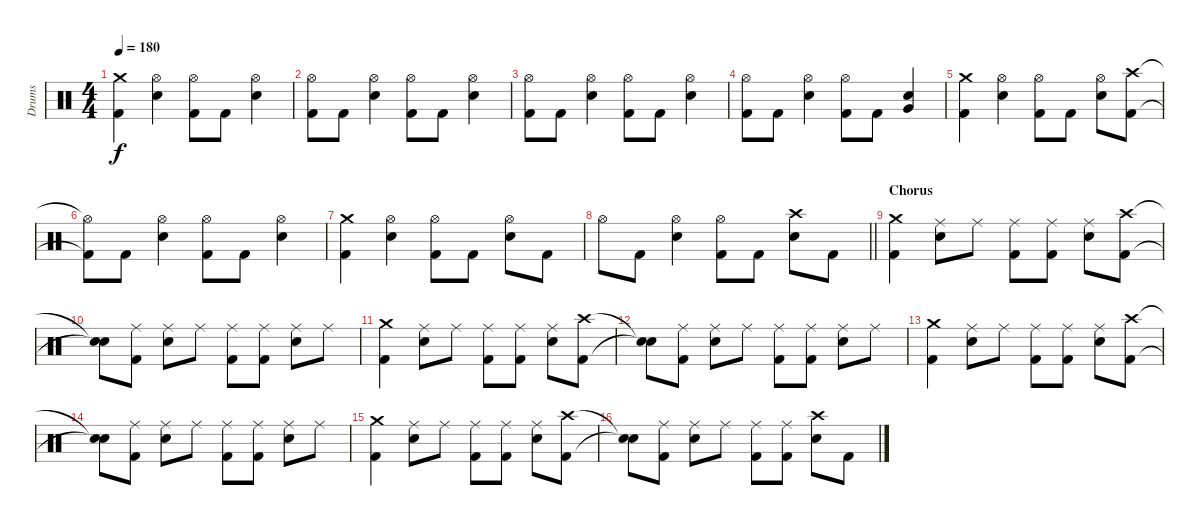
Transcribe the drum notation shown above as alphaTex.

\track ("Drums" "Drums") {instrument percussion}
\staff {score}
\articulation defaults
\ts (4 4)
\tempo 180
\clef neutral
\ks c
("Crash medium (hit)" "Kick (hit) 2").4{dy f} ("Hi-Hat (open)" "Electric Snare (hit)").4 ("Hi-Hat (open)" "Kick (hit) 2").8 "Kick (hit) 2".8 ("Hi-Hat (open)" "Electric Snare (hit)").4 |
("Hi-Hat (open)" "Kick (hit) 2").8 "Kick (hit) 2".8 ("Hi-Hat (open)" "Electric Snare (hit)").4 ("Hi-Hat (open)" "Kick (hit) 2").8 "Kick (hit) 2".8 ("Hi-Hat (open)" "Electric Snare (hit)").4 |
("Hi-Hat (open)" "Kick (hit) 2").8 "Kick (hit) 2".8 ("Hi-Hat (open)" "Electric Snare (hit)").4 ("Hi-Hat (open)" "Kick (hit) 2").8 "Kick (hit) 2".8 ("Hi-Hat (open)" "Electric Snare (hit)").4 |
("Hi-Hat (open)" "Kick (hit) 2").8 "Kick (hit) 2".8 ("Hi-Hat (open)" "Electric Snare (hit)").4 ("Hi-Hat (open)" "Kick (hit) 2").8 "Kick (hit) 2".8 ("Very Low Tom (hit)" "Electric Snare (hit)").4 |
("Crash medium (hit)" "Kick (hit) 2").4 ("Hi-Hat (open)" "Electric Snare (hit)").4 ("Hi-Hat (open)" "Kick (hit) 2").8 "Kick (hit) 2".8 ("Hi-Hat (open)" "Electric Snare (hit)").8 ("Crash high (hit)" "Kick (hit) 2").8 |
("Hi-Hat (open)"{t} "Kick (hit) 2"{t}).8 "Kick (hit) 2".8 ("Hi-Hat (open)" "Electric Snare (hit)").4 ("Hi-Hat (open)" "Kick (hit) 2").8 "Kick (hit) 2".8 ("Hi-Hat (open)" "Electric Snare (hit)").4 |
("Crash medium (hit)" "Kick (hit) 2").4 ("Hi-Hat (open)" "Electric Snare (hit)").4 ("Hi-Hat (open)" "Kick (hit) 2").8 "Kick (hit) 2".8 ("Hi-Hat (open)" "Electric Snare (hit)").8 "Kick (hit) 2".8 |
\barLineRight lightlight "Hi-Hat (open)".8 "Kick (hit) 2".8
("Hi-Hat (open)" "Electric Snare (hit)").4 ("Hi-Hat (open)" "Kick (hit) 2").8 "Kick (hit) 2".8 ("Crash high (hit)" "Electric Snare (hit)").8 "Kick (hit) 2".8 |
\section ("" "Chorus")
("Crash medium (hit)" "Kick (hit) 2").4 ("Ride (middle)" "Electric Snare (hit)").8 "Ride (middle)".8 ("Ride (middle)" "Kick (hit) 2").8 ("Ride (middle)" "Kick (hit) 2").8 ("Ride (middle)" "Electric Snare (hit)").8 ("Crash high (hit)" "Kick (hit) 2").8 |
("Snare (hit)"{t} "Snare (hit)"{t}).8 ("Ride (middle)" "Kick (hit) 2").8 ("Ride (middle)" "Electric Snare (hit)").8 "Ride (middle)".8 ("Ride (middle)" "Kick (hit) 2").8 ("Ride (middle)" "Kick (hit) 2").8 ("Ride (middle)" "Electric Snare (hit)").8 "Ride (middle)".8 |
("Crash medium (hit)" "Kick (hit) 2").4 ("Ride (middle)" "Electric Snare (hit)").8 "Ride (middle)".8 ("Ride (middle)" "Kick (hit) 2").8 ("Ride (middle)" "Kick (hit) 2").8 ("Ride (middle)" "Electric Snare (hit)").8 ("Crash high (hit)" "Kick (hit) 2").8 |
("Snare (hit)"{t} "Snare (hit)"{t}).8 ("Ride (middle)" "Kick (hit) 2").8 ("Ride (middle)" "Electric Snare (hit)").8 "Ride (middle)".8 ("Ride (middle)" "Kick (hit) 2").8 ("Ride (middle)" "Kick (hit) 2").8 ("Ride (middle)" "Electric Snare (hit)").8 "Ride (middle)".8 |
("Crash medium (hit)" "Kick (hit) 2").4 ("Ride (middle)" "Electric Snare (hit)").8 "Ride (middle)".8 ("Ride (middle)" "Kick (hit) 2").8 ("Ride (middle)" "Kick (hit) 2").8 ("Ride (middle)" "Electric Snare (hit)").8 ("Crash high (hit)" "Kick (hit) 2").8 |
("Snare (hit)"{t} "Snare (hit)"{t}).8 ("Ride (middle)" "Kick (hit) 2").8 ("Ride (middle)" "Electric Snare (hit)").8 "Ride (middle)".8 ("Ride (middle)" "Kick (hit) 2").8 ("Ride (middle)" "Kick (hit) 2").8 ("Ride (middle)" "Electric Snare (hit)").8 "Ride (middle)".8 |
("Crash medium (hit)" "Kick (hit) 2").4 ("Ride (middle)" "Electric Snare (hit)").8 "Ride (middle)".8 ("Ride (middle)" "Kick (hit) 2").8 ("Ride (middle)" "Kick (hit) 2").8 ("Ride (middle)" "Electric Snare (hit)").8 ("Crash high (hit)" "Kick (hit) 2").8 |
("Snare (hit)"{t} "Snare (hit)"{t}).8 ("Ride (middle)" "Kick (hit) 2").8 ("Ride (middle)" "Electric Snare (hit)").8 "Ride (middle)".8 ("Ride (middle)" "Kick (hit) 2").8 ("Ride (middle)" "Kick (hit) 2").8 ("Crash high (hit)" "Electric Snare (hit)").8 "Kick (hit) 2".8
